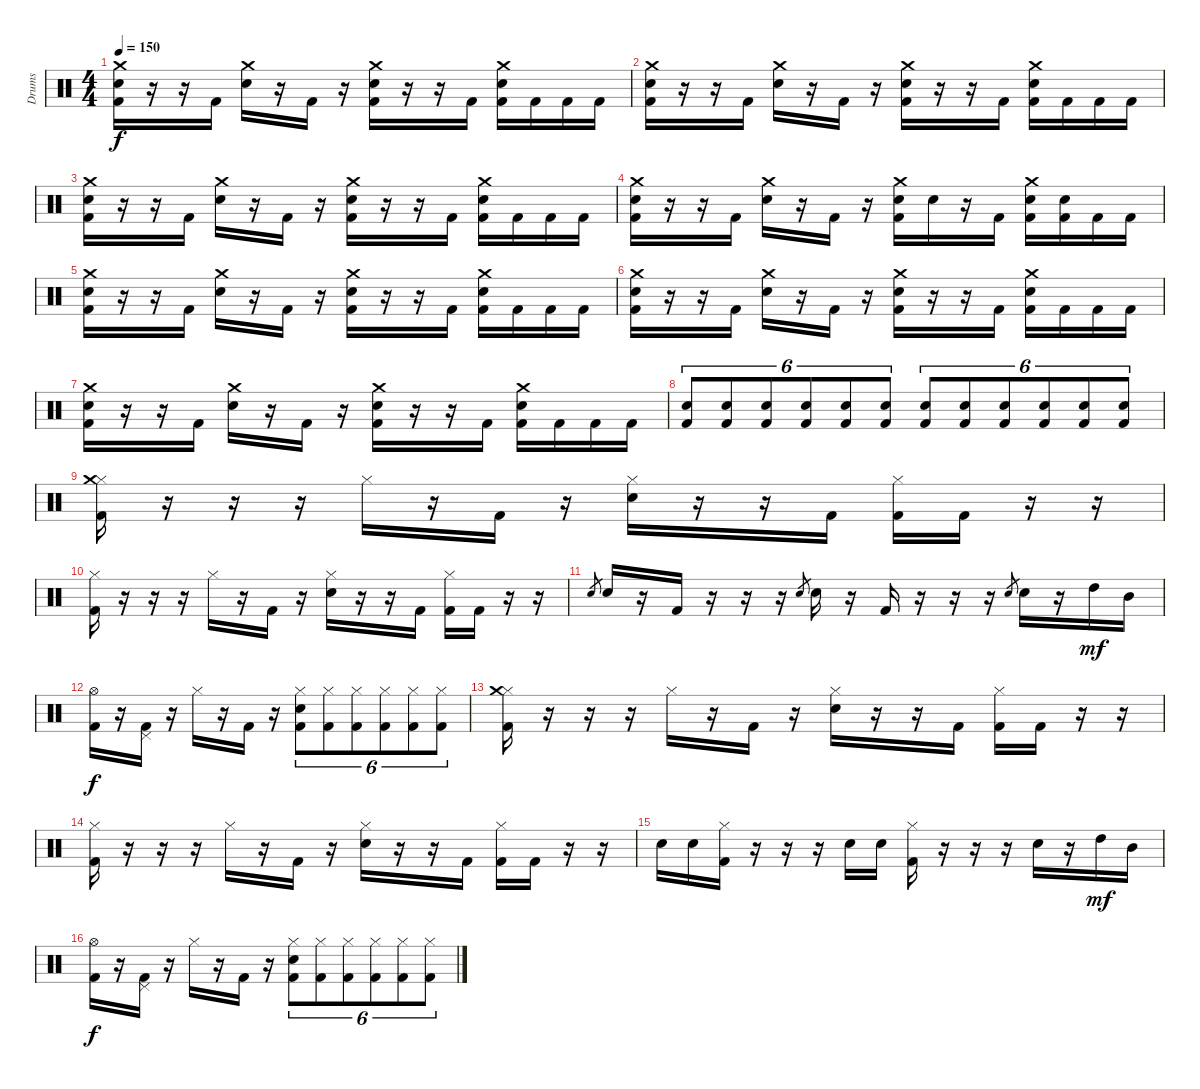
\track ("Drums" "Drums") {instrument percussion}
\staff {score}
\articulation defaults
\ts (4 4)
\tempo 150
\clef neutral
\ks c
("Crash medium (hit)" "Electric Snare (hit)" "Kick (hit) 2").16{dy f} r.16 r.16 "Kick (hit) 2".16 ("Crash medium (hit)" "Electric Snare (hit)").16 r.16 "Kick (hit) 2".16 r.16 ("Crash medium (hit)" "Electric Snare (hit)" "Kick (hit) 2").16 r.16 r.16 "Kick (hit) 2".16 ("Crash medium (hit)" "Electric Snare (hit)" "Kick (hit) 2").16 "Kick (hit) 2".16 "Kick (hit) 2".16 "Kick (hit) 2".16 |
("Crash medium (hit)" "Electric Snare (hit)" "Kick (hit) 2").16 r.16 r.16 "Kick (hit) 2".16 ("Crash medium (hit)" "Electric Snare (hit)").16 r.16 "Kick (hit) 2".16 r.16 ("Crash medium (hit)" "Electric Snare (hit)" "Kick (hit) 2").16 r.16 r.16 "Kick (hit) 2".16 ("Crash medium (hit)" "Electric Snare (hit)" "Kick (hit) 2").16 "Kick (hit) 2".16 "Kick (hit) 2".16 "Kick (hit) 2".16 |
("Crash medium (hit)" "Electric Snare (hit)" "Kick (hit) 2").16 r.16 r.16 "Kick (hit) 2".16 ("Crash medium (hit)" "Electric Snare (hit)").16 r.16 "Kick (hit) 2".16 r.16 ("Crash medium (hit)" "Electric Snare (hit)" "Kick (hit) 2").16 r.16 r.16 "Kick (hit) 2".16 ("Crash medium (hit)" "Electric Snare (hit)" "Kick (hit) 2").16 "Kick (hit) 2".16 "Kick (hit) 2".16 "Kick (hit) 2".16 |
("Crash medium (hit)" "Electric Snare (hit)" "Kick (hit) 2").16 r.16 r.16 "Kick (hit) 2".16 ("Crash medium (hit)" "Electric Snare (hit)").16 r.16 "Kick (hit) 2".16 r.16 ("Crash medium (hit)" "Electric Snare (hit)" "Kick (hit) 2").16 "Electric Snare (hit)".16 r.16 "Kick (hit) 2".16 ("Crash medium (hit)" "Electric Snare (hit)" "Kick (hit) 2").16 ("Electric Snare (hit)" "Kick (hit) 2").16 "Kick (hit) 2".16 "Kick (hit) 2".16 |
("Crash medium (hit)" "Electric Snare (hit)" "Kick (hit) 2").16 r.16 r.16 "Kick (hit) 2".16 ("Crash medium (hit)" "Electric Snare (hit)").16 r.16 "Kick (hit) 2".16 r.16 ("Crash medium (hit)" "Electric Snare (hit)" "Kick (hit) 2").16 r.16 r.16 "Kick (hit) 2".16 ("Crash medium (hit)" "Electric Snare (hit)" "Kick (hit) 2").16 "Kick (hit) 2".16 "Kick (hit) 2".16 "Kick (hit) 2".16 |
("Crash medium (hit)" "Electric Snare (hit)" "Kick (hit) 2").16 r.16 r.16 "Kick (hit) 2".16 ("Crash medium (hit)" "Electric Snare (hit)").16 r.16 "Kick (hit) 2".16 r.16 ("Crash medium (hit)" "Electric Snare (hit)" "Kick (hit) 2").16 r.16 r.16 "Kick (hit) 2".16 ("Crash medium (hit)" "Electric Snare (hit)" "Kick (hit) 2").16 "Kick (hit) 2".16 "Kick (hit) 2".16 "Kick (hit) 2".16 |
("Crash medium (hit)" "Electric Snare (hit)" "Kick (hit) 2").16 r.16 r.16 "Kick (hit) 2".16 ("Crash medium (hit)" "Electric Snare (hit)").16 r.16 "Kick (hit) 2".16 r.16 ("Crash medium (hit)" "Electric Snare (hit)" "Kick (hit) 2").16 r.16 r.16 "Kick (hit) 2".16 ("Crash medium (hit)" "Electric Snare (hit)" "Kick (hit) 2").16 "Kick (hit) 2".16 "Kick (hit) 2".16 "Kick (hit) 2".16 |
("Kick (hit) 2" "Electric Snare (hit)").8{tu (6 4)} ("Kick (hit) 2" "Electric Snare (hit)").8{tu (6 4)} ("Kick (hit) 2" "Electric Snare (hit)").8{tu (6 4)} ("Kick (hit) 2" "Electric Snare (hit)").8{tu (6 4)} ("Kick (hit) 2" "Electric Snare (hit)").8{tu (6 4)} ("Kick (hit) 2" "Electric Snare (hit)").8{tu (6 4)} ("Kick (hit) 2" "Electric Snare (hit)").8{tu (6 4)} ("Kick (hit) 2" "Electric Snare (hit)").8{tu (6 4)} ("Kick (hit) 2" "Electric Snare (hit)").8{tu (6 4)} ("Kick (hit) 2" "Electric Snare (hit)").8{tu (6 4)} ("Kick (hit) 2" "Electric Snare (hit)").8{tu (6 4)} ("Kick (hit) 2" "Electric Snare (hit)").8{tu (6 4)} |
("Hi-Hat (closed)" "Crash medium (hit)" "Kick (hit) 2").16 r.16 r.16 r.16 "Hi-Hat (closed)".16 r.16 "Kick (hit) 2".16 r.16 ("Hi-Hat (closed)" "Electric Snare (hit)").16 r.16 r.16 "Kick (hit) 2".16 ("Hi-Hat (closed)" "Kick (hit) 2").16 "Kick (hit) 2".16 r.16 r.16 |
("Hi-Hat (closed)" "Kick (hit) 2").16 r.16 r.16 r.16 "Hi-Hat (closed)".16 r.16 "Kick (hit) 2".16 r.16 ("Hi-Hat (closed)" "Electric Snare (hit)").16 r.16 r.16 "Kick (hit) 2".16 ("Hi-Hat (closed)" "Kick (hit) 2").16 "Kick (hit) 2".16 r.16 r.16 |
"Electric Snare (hit)".8{gr} "Electric Snare (hit)".16 r.16 "Kick (hit) 2".16 r.16 r.16 r.16 "Electric Snare (hit)".8{gr} "Electric Snare (hit)".16 r.16 "Kick (hit) 2".16 r.16 r.16 r.16 "Electric Snare (hit)".8{gr} "Electric Snare (hit)".16 r.16 "High Tom (hit)".16{dy mf} "Mid Tom (hit)".16 |
("Hi-Hat (open)" "Kick (hit) 2").16{dy f} r.16 ("Pedal Hi-Hat (hit)" "Kick (hit) 2").16 r.16 "Hi-Hat (closed)".16 r.16 "Kick (hit) 2".16 r.16 ("Hi-Hat (closed)" "Electric Snare (hit)" "Kick (hit) 2").8{tu (6 4)} ("Hi-Hat (closed)" "Kick (hit) 2").8{tu (6 4)} ("Hi-Hat (closed)" "Kick (hit) 2").8{tu (6 4)} ("Hi-Hat (closed)" "Kick (hit) 2").8{tu (6 4)} ("Hi-Hat (closed)" "Kick (hit) 2").8{tu (6 4)} ("Hi-Hat (closed)" "Kick (hit) 2").8{tu (6 4)} |
("Hi-Hat (closed)" "Crash medium (hit)" "Kick (hit) 2").16 r.16 r.16 r.16 "Hi-Hat (closed)".16 r.16 "Kick (hit) 2".16 r.16 ("Hi-Hat (closed)" "Electric Snare (hit)").16 r.16 r.16 "Kick (hit) 2".16 ("Hi-Hat (closed)" "Kick (hit) 2").16 "Kick (hit) 2".16 r.16 r.16 |
("Hi-Hat (closed)" "Kick (hit) 2").16 r.16 r.16 r.16 "Hi-Hat (closed)".16 r.16 "Kick (hit) 2".16 r.16 ("Hi-Hat (closed)" "Electric Snare (hit)").16 r.16 r.16 "Kick (hit) 2".16 ("Hi-Hat (closed)" "Kick (hit) 2").16 "Kick (hit) 2".16 r.16 r.16 |
"Electric Snare (hit)".16 "Electric Snare (hit)".16 ("Hi-Hat (closed)" "Kick (hit) 2").16 r.16 r.16 r.16 "Electric Snare (hit)".16 "Electric Snare (hit)".16 ("Hi-Hat (closed)" "Kick (hit) 2").16 r.16 r.16 r.16 "Electric Snare (hit)".16 r.16 "High Tom (hit)".16{dy mf} "Mid Tom (hit)".16 |
("Hi-Hat (open)" "Kick (hit) 2").16{dy f} r.16 ("Pedal Hi-Hat (hit)" "Kick (hit) 2").16 r.16 "Hi-Hat (closed)".16 r.16 "Kick (hit) 2".16 r.16 ("Hi-Hat (closed)" "Electric Snare (hit)" "Kick (hit) 2").8{tu (6 4)} ("Hi-Hat (closed)" "Kick (hit) 2").8{tu (6 4)} ("Hi-Hat (closed)" "Kick (hit) 2").8{tu (6 4)} ("Hi-Hat (closed)" "Kick (hit) 2").8{tu (6 4)} ("Hi-Hat (closed)" "Kick (hit) 2").8{tu (6 4)} ("Hi-Hat (closed)" "Kick (hit) 2").8{tu (6 4)}
